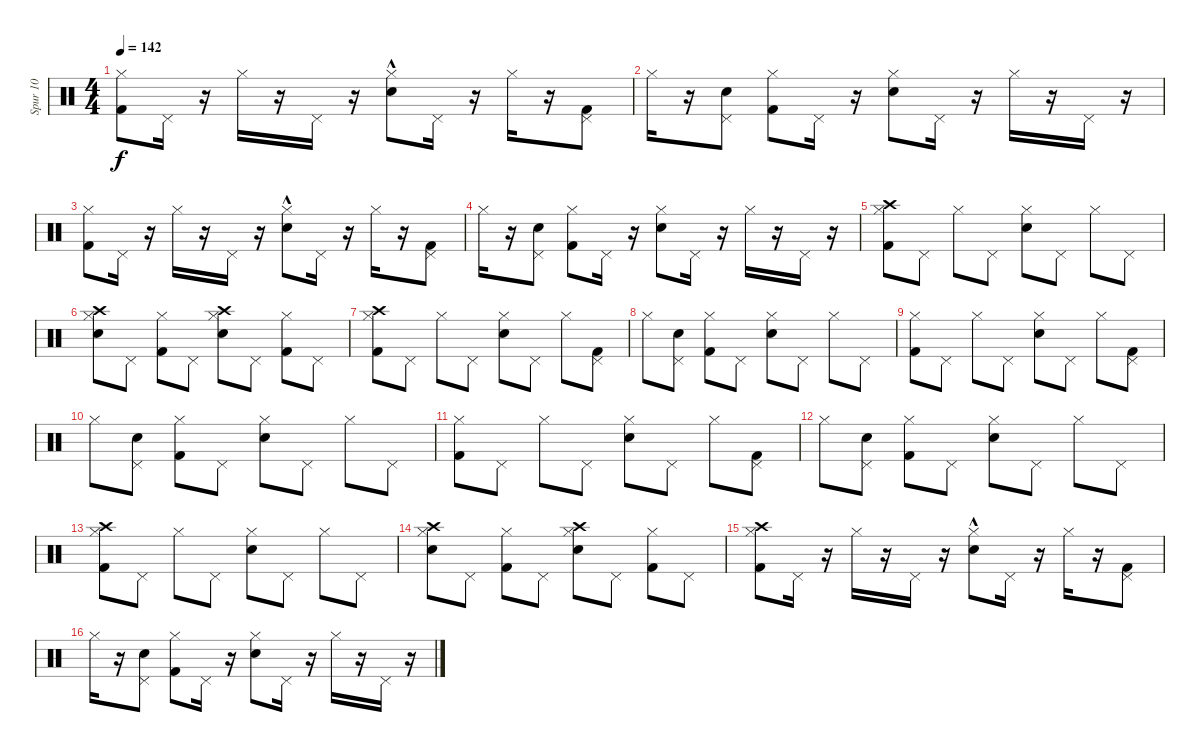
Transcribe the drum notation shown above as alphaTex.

\track ("Spur 10" "Spur 10") {instrument percussion}
\staff {score}
\articulation defaults
\ts (4 4)
\tempo 142
\clef neutral
\ks c
("Kick (hit) 2" "Hi-Hat (closed)").8{dy f} "Pedal Hi-Hat (hit)".16 r.16 "Hi-Hat (closed)".16 r.16 "Pedal Hi-Hat (hit)".16 r.16 ("Snare (hit) 2"{hac} "Hi-Hat (closed)").8 "Pedal Hi-Hat (hit)".16 r.16 "Hi-Hat (closed)".16 r.16 ("Kick (hit) 2" "Pedal Hi-Hat (hit)").8 |
"Hi-Hat (closed)".16 r.16 ("Snare (hit) 2" "Pedal Hi-Hat (hit)").8 ("Kick (hit) 2" "Hi-Hat (closed)").8 "Pedal Hi-Hat (hit)".16 r.16 ("Snare (hit) 2" "Hi-Hat (closed)").8 "Pedal Hi-Hat (hit)".16 r.16 "Hi-Hat (closed)".16 r.16 "Pedal Hi-Hat (hit)".16 r.16 |
("Kick (hit) 2" "Hi-Hat (closed)").8 "Pedal Hi-Hat (hit)".16 r.16 "Hi-Hat (closed)".16 r.16 "Pedal Hi-Hat (hit)".16 r.16 ("Snare (hit) 2"{hac} "Hi-Hat (closed)").8 "Pedal Hi-Hat (hit)".16 r.16 "Hi-Hat (closed)".16 r.16 ("Kick (hit) 2" "Pedal Hi-Hat (hit)").8 |
"Hi-Hat (closed)".16 r.16 ("Snare (hit) 2" "Pedal Hi-Hat (hit)").8 ("Kick (hit) 2" "Hi-Hat (closed)").8 "Pedal Hi-Hat (hit)".16 r.16 ("Snare (hit) 2" "Hi-Hat (closed)").8 "Pedal Hi-Hat (hit)".16 r.16 "Hi-Hat (closed)".16 r.16 "Pedal Hi-Hat (hit)".16 r.16 |
("Crash high (hit)" "Kick (hit) 2" "Hi-Hat (closed)").8 "Pedal Hi-Hat (hit)".8 "Hi-Hat (closed)".8 "Pedal Hi-Hat (hit)".8 ("Snare (hit) 2" "Hi-Hat (closed)").8 "Pedal Hi-Hat (hit)".8 "Hi-Hat (closed)".8 "Pedal Hi-Hat (hit)".8 |
("Snare (hit) 2" "Crash high (hit)" "Hi-Hat (closed)").8 "Pedal Hi-Hat (hit)".8 ("Kick (hit) 2" "Hi-Hat (closed)").8 "Pedal Hi-Hat (hit)".8 ("Snare (hit) 2" "Crash high (hit)" "Hi-Hat (closed)").8 "Pedal Hi-Hat (hit)".8 ("Kick (hit) 2" "Hi-Hat (closed)").8 "Pedal Hi-Hat (hit)".8 |
("Crash high (hit)" "Kick (hit) 2" "Hi-Hat (closed)").8 "Pedal Hi-Hat (hit)".8 "Hi-Hat (closed)".8 "Pedal Hi-Hat (hit)".8 ("Snare (hit) 2" "Hi-Hat (closed)").8 "Pedal Hi-Hat (hit)".8 "Hi-Hat (closed)".8 ("Kick (hit) 2" "Pedal Hi-Hat (hit)").8 |
"Hi-Hat (closed)".8 ("Snare (hit) 2" "Pedal Hi-Hat (hit)").8 ("Kick (hit) 2" "Hi-Hat (closed)").8 "Pedal Hi-Hat (hit)".8 ("Snare (hit) 2" "Hi-Hat (closed)").8 "Pedal Hi-Hat (hit)".8 "Hi-Hat (closed)".8 "Pedal Hi-Hat (hit)".8 |
("Kick (hit) 2" "Hi-Hat (closed)").8 "Pedal Hi-Hat (hit)".8 "Hi-Hat (closed)".8 "Pedal Hi-Hat (hit)".8 ("Snare (hit) 2" "Hi-Hat (closed)").8 "Pedal Hi-Hat (hit)".8 "Hi-Hat (closed)".8 ("Kick (hit) 2" "Pedal Hi-Hat (hit)").8 |
"Hi-Hat (closed)".8 ("Snare (hit) 2" "Pedal Hi-Hat (hit)").8 ("Kick (hit) 2" "Hi-Hat (closed)").8 "Pedal Hi-Hat (hit)".8 ("Snare (hit) 2" "Hi-Hat (closed)").8 "Pedal Hi-Hat (hit)".8 "Hi-Hat (closed)".8 "Pedal Hi-Hat (hit)".8 |
("Kick (hit) 2" "Hi-Hat (closed)").8 "Pedal Hi-Hat (hit)".8 "Hi-Hat (closed)".8 "Pedal Hi-Hat (hit)".8 ("Snare (hit) 2" "Hi-Hat (closed)").8 "Pedal Hi-Hat (hit)".8 "Hi-Hat (closed)".8 ("Kick (hit) 2" "Pedal Hi-Hat (hit)").8 |
"Hi-Hat (closed)".8 ("Snare (hit) 2" "Pedal Hi-Hat (hit)").8 ("Kick (hit) 2" "Hi-Hat (closed)").8 "Pedal Hi-Hat (hit)".8 ("Snare (hit) 2" "Hi-Hat (closed)").8 "Pedal Hi-Hat (hit)".8 "Hi-Hat (closed)".8 "Pedal Hi-Hat (hit)".8 |
("Crash high (hit)" "Kick (hit) 2" "Hi-Hat (closed)").8 "Pedal Hi-Hat (hit)".8 "Hi-Hat (closed)".8 "Pedal Hi-Hat (hit)".8 ("Snare (hit) 2" "Hi-Hat (closed)").8 "Pedal Hi-Hat (hit)".8 "Hi-Hat (closed)".8 "Pedal Hi-Hat (hit)".8 |
("Snare (hit) 2" "Crash high (hit)" "Hi-Hat (closed)").8 "Pedal Hi-Hat (hit)".8 ("Kick (hit) 2" "Hi-Hat (closed)").8 "Pedal Hi-Hat (hit)".8 ("Snare (hit) 2" "Crash high (hit)" "Hi-Hat (closed)").8 "Pedal Hi-Hat (hit)".8 ("Kick (hit) 2" "Hi-Hat (closed)").8 "Pedal Hi-Hat (hit)".8 |
("Crash high (hit)" "Kick (hit) 2" "Hi-Hat (closed)").8 "Pedal Hi-Hat (hit)".16 r.16 "Hi-Hat (closed)".16 r.16 "Pedal Hi-Hat (hit)".16 r.16 ("Snare (hit) 2"{hac} "Hi-Hat (closed)").8 "Pedal Hi-Hat (hit)".16 r.16 "Hi-Hat (closed)".16 r.16 ("Kick (hit) 2" "Pedal Hi-Hat (hit)").8 |
"Hi-Hat (closed)".16 r.16 ("Snare (hit) 2" "Pedal Hi-Hat (hit)").8 ("Kick (hit) 2" "Hi-Hat (closed)").8 "Pedal Hi-Hat (hit)".16 r.16 ("Snare (hit) 2" "Hi-Hat (closed)").8 "Pedal Hi-Hat (hit)".16 r.16 "Hi-Hat (closed)".16 r.16 "Pedal Hi-Hat (hit)".16 r.16
